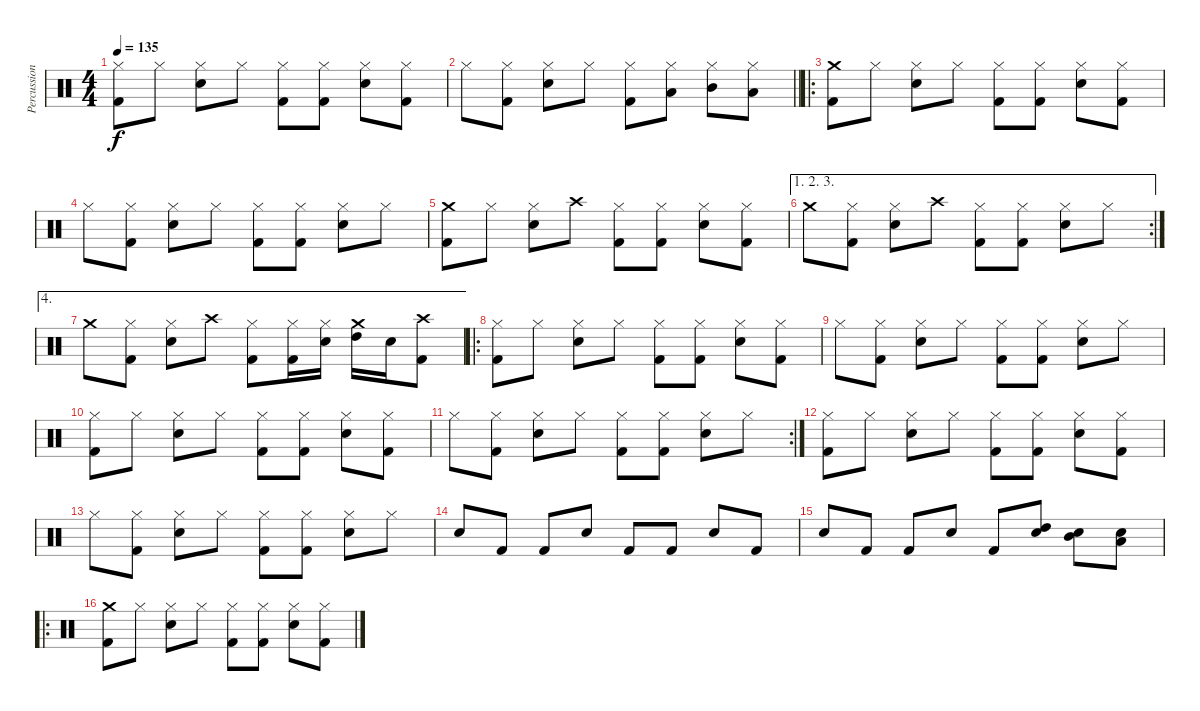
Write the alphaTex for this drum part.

\track ("Percussion" "Percussion") {instrument percussion}
\staff {score}
\articulation defaults
\ts (4 4)
\tempo 135
\clef neutral
\ks c
("Hi-Hat (closed)" "Kick (hit) 2").8{dy f volume 13} "Hi-Hat (closed)".8 ("Hi-Hat (closed)" "Snare (hit) 2").8 "Hi-Hat (closed)".8 ("Hi-Hat (closed)" "Kick (hit) 2").8 ("Hi-Hat (closed)" "Kick (hit) 2").8 ("Hi-Hat (closed)" "Snare (hit) 2").8 ("Hi-Hat (closed)" "Kick (hit) 2").8 |
\barLineRight lightlight "Hi-Hat (closed)".8
("Hi-Hat (closed)" "Kick (hit) 2").8 ("Hi-Hat (closed)" "Snare (hit) 2").8 "Hi-Hat (closed)".8 ("Hi-Hat (closed)" "Kick (hit) 2").8 ("Hi-Hat (closed)" "Low Tom (hit)").8 ("Hi-Hat (closed)" "Mid Tom (hit)").8 ("Hi-Hat (closed)" "Low Tom (hit)").8 |
\ro
("Crash medium (hit)" "Kick (hit) 2").8 "Hi-Hat (closed)".8 ("Hi-Hat (closed)" "Snare (hit) 2").8 "Hi-Hat (closed)".8 ("Hi-Hat (closed)" "Kick (hit) 2").8 ("Hi-Hat (closed)" "Kick (hit) 2").8 ("Hi-Hat (closed)" "Snare (hit) 2").8 ("Hi-Hat (closed)" "Kick (hit) 2").8 |
"Hi-Hat (closed)".8 ("Hi-Hat (closed)" "Kick (hit) 2").8 ("Hi-Hat (closed)" "Snare (hit) 2").8 "Hi-Hat (closed)".8 ("Hi-Hat (closed)" "Kick (hit) 2").8 ("Hi-Hat (closed)" "Kick (hit) 2").8 ("Hi-Hat (closed)" "Snare (hit) 2").8 "Hi-Hat (closed)".8 |
("Crash medium (hit)" "Kick (hit) 2").8 "Hi-Hat (closed)".8 ("Hi-Hat (closed)" "Snare (hit) 2").8 "Crash high (hit)".8 ("Hi-Hat (closed)" "Kick (hit) 2").8 ("Hi-Hat (closed)" "Kick (hit) 2").8 ("Hi-Hat (closed)" "Snare (hit) 2").8 ("Hi-Hat (closed)" "Kick (hit) 2").8 |
\ae (1 2 3)
\rc 2 "Crash medium (hit)".8
("Hi-Hat (closed)" "Kick (hit) 2").8 ("Hi-Hat (closed)" "Snare (hit) 2").8 "Crash high (hit)".8 ("Hi-Hat (closed)" "Kick (hit) 2").8 ("Hi-Hat (closed)" "Kick (hit) 2").8 ("Hi-Hat (closed)" "Snare (hit) 2").8 "Hi-Hat (closed)".8 |
\ae 4 "Crash medium (hit)".8
("Hi-Hat (closed)" "Kick (hit) 2").8 ("Hi-Hat (closed)" "Snare (hit) 2").8 "Crash high (hit)".8 ("Hi-Hat (closed)" "Kick (hit) 2").8 ("Hi-Hat (closed)" "Kick (hit) 2").16 ("Hi-Hat (closed)" "Snare (hit) 2").16 ("Crash medium (hit)" "High Tom (hit)").16 "Snare (hit) 2".16 ("Crash high (hit)" "Kick (hit) 2").8 |
\ro
("Hi-Hat (closed)" "Kick (hit) 2").8{volume 11} "Hi-Hat (closed)".8 ("Hi-Hat (closed)" "Snare (hit) 2").8 "Hi-Hat (closed)".8 ("Hi-Hat (closed)" "Kick (hit) 2").8 ("Hi-Hat (closed)" "Kick (hit) 2").8 ("Hi-Hat (closed)" "Snare (hit) 2").8 ("Hi-Hat (closed)" "Kick (hit) 2").8 |
"Hi-Hat (closed)".8 ("Hi-Hat (closed)" "Kick (hit) 2").8 ("Hi-Hat (closed)" "Snare (hit) 2").8 "Hi-Hat (closed)".8 ("Hi-Hat (closed)" "Kick (hit) 2").8 ("Hi-Hat (closed)" "Kick (hit) 2").8 ("Hi-Hat (closed)" "Snare (hit) 2").8 "Hi-Hat (closed)".8 |
("Hi-Hat (closed)" "Kick (hit) 2").8 "Hi-Hat (closed)".8 ("Hi-Hat (closed)" "Snare (hit) 2").8 "Hi-Hat (closed)".8 ("Hi-Hat (closed)" "Kick (hit) 2").8 ("Hi-Hat (closed)" "Kick (hit) 2").8 ("Hi-Hat (closed)" "Snare (hit) 2").8 ("Hi-Hat (closed)" "Kick (hit) 2").8 |
\rc 2 "Hi-Hat (closed)".8
("Hi-Hat (closed)" "Kick (hit) 2").8 ("Hi-Hat (closed)" "Snare (hit) 2").8 "Hi-Hat (closed)".8 ("Hi-Hat (closed)" "Kick (hit) 2").8 ("Hi-Hat (closed)" "Kick (hit) 2").8 ("Hi-Hat (closed)" "Snare (hit) 2").8 "Hi-Hat (closed)".8 |
("Hi-Hat (closed)" "Kick (hit) 2").8 "Hi-Hat (closed)".8 ("Hi-Hat (closed)" "Snare (hit) 2").8 "Hi-Hat (closed)".8 ("Hi-Hat (closed)" "Kick (hit) 2").8 ("Hi-Hat (closed)" "Kick (hit) 2").8 ("Hi-Hat (closed)" "Snare (hit) 2").8 ("Hi-Hat (closed)" "Kick (hit) 2").8 |
"Hi-Hat (closed)".8 ("Hi-Hat (closed)" "Kick (hit) 2").8 ("Hi-Hat (closed)" "Snare (hit) 2").8 "Hi-Hat (closed)".8 ("Hi-Hat (closed)" "Kick (hit) 2").8 ("Hi-Hat (closed)" "Kick (hit) 2").8 ("Hi-Hat (closed)" "Snare (hit) 2").8 "Hi-Hat (closed)".8 |
"Snare (hit) 2".8{volume 13} "Kick (hit) 2".8 "Kick (hit) 2".8 "Snare (hit) 2".8 "Kick (hit) 2".8 "Kick (hit) 2".8 "Snare (hit) 2".8 "Kick (hit) 2".8 |
"Snare (hit) 2".8 "Kick (hit) 2".8 "Kick (hit) 2".8 "Snare (hit) 2".8 "Kick (hit) 2".8 ("High Tom (hit)" "Snare (hit) 2").8 ("Mid Tom (hit)" "Snare (hit) 2").8 ("Low Tom (hit)" "Snare (hit) 2").8 |
\ro
("Crash medium (hit)" "Kick (hit) 2").8 "Hi-Hat (closed)".8 ("Hi-Hat (closed)" "Snare (hit) 2").8 "Hi-Hat (closed)".8 ("Hi-Hat (closed)" "Kick (hit) 2").8 ("Hi-Hat (closed)" "Kick (hit) 2").8 ("Hi-Hat (closed)" "Snare (hit) 2").8 ("Hi-Hat (closed)" "Kick (hit) 2").8
